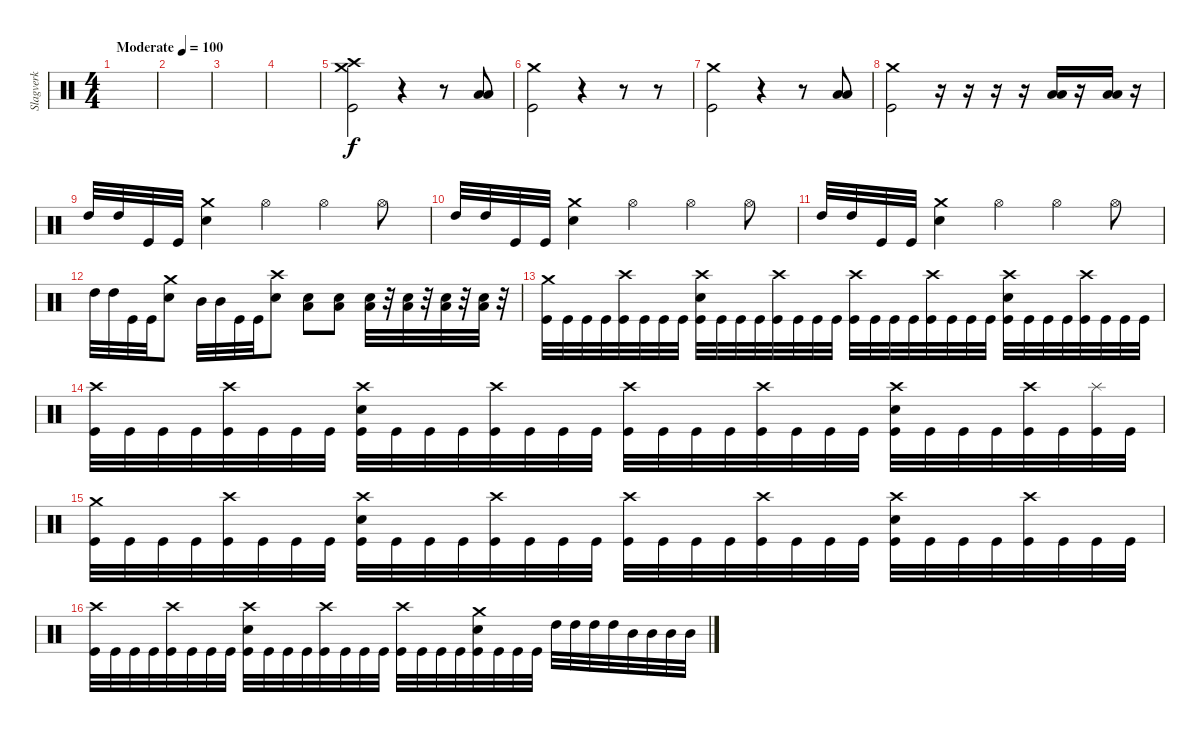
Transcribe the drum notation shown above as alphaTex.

\track ("Slagverk" "Slagverk") {solo instrument percussion}
\staff {score}
\articulation defaults
\ts (4 4)
\tempo (100 "Moderate")
\clef neutral
\ks c
|
|
|
|
("Crash medium (hit)" "Crash high (hit)" "Kick (hit)").2 r.4 r.8 ("Low Floor Tom (hit)" "Low Tom (hit)").8 |
("Crash medium (hit)" "Kick (hit)").2 r.4 r.8 r.8 |
("Crash medium (hit)" "Kick (hit)").2 r.4 r.8 ("Low Floor Tom (hit)" "Low Tom (hit)").8 |
("Crash medium (hit)" "Kick (hit)").2 r.16 r.16 r.16 r.16 ("Low Tom (hit)" "Low Tom (hit)").16 r.16 ("Low Tom (hit)" "Low Tom (hit)").16 r.16 |
"High Tom (hit)".32 "High Tom (hit)".32 "Kick (hit)".32 "Kick (hit)".32 ("Crash medium (hit)" "Snare (hit) 2").4 "Hi-Hat (open)".4 "Hi-Hat (open)".4 "Hi-Hat (open)".8 |
"High Tom (hit)".32 "High Tom (hit)".32 "Kick (hit)".32 "Kick (hit)".32 ("Crash medium (hit)" "Snare (hit) 2").4 "Hi-Hat (open)".4 "Hi-Hat (open)".4 "Hi-Hat (open)".8 |
"High Tom (hit)".32 "High Tom (hit)".32 "Kick (hit)".32 "Kick (hit)".32 ("Crash medium (hit)" "Snare (hit) 2").4 "Hi-Hat (open)".4 "Hi-Hat (open)".4 "Hi-Hat (open)".8 |
"High Tom (hit)".32 "High Tom (hit)".32 "Kick (hit)".32 "Kick (hit)".32 ("Crash medium (hit)" "Snare (hit) 2").8 "Mid Tom (hit)".32 "Mid Tom (hit)".32 "Kick (hit)".32 "Kick (hit)".32 ("Crash high (hit)" "Snare (hit) 2").8 ("Low Floor Tom (hit)" "Snare (hit) 2").8 ("Low Floor Tom (hit)" "Snare (hit) 2").8 ("Low Floor Tom (hit)" "Snare (hit) 2").32 r.32 ("Low Floor Tom (hit)" "Snare (hit) 2").32 r.32 ("Low Floor Tom (hit)" "Snare (hit) 2").32 r.32 ("Low Floor Tom (hit)" "Snare (hit) 2").32 r.32 |
("Crash medium (hit)" "Kick (hit)").32 "Kick (hit)".32 "Kick (hit)".32 "Kick (hit)".32 ("Crash high (hit)" "Kick (hit)").32 "Kick (hit)".32 "Kick (hit)".32 "Kick (hit)".32 ("Crash high (hit)" "Electric Snare (hit)" "Kick (hit)").32 "Kick (hit)".32 "Kick (hit)".32 "Kick (hit)".32 ("Crash high (hit)" "Kick (hit)").32 "Kick (hit)".32 "Kick (hit)".32 "Kick (hit)".32 ("Crash high (hit)" "Kick (hit)").32 "Kick (hit)".32 "Kick (hit)".32 "Kick (hit)".32 ("Crash high (hit)" "Kick (hit)").32 "Kick (hit)".32 "Kick (hit)".32 "Kick (hit)".32 ("Crash high (hit)" "Electric Snare (hit)" "Kick (hit)").32 "Kick (hit)".32 "Kick (hit)".32 "Kick (hit)".32 ("Crash high (hit)" "Kick (hit)").32 "Kick (hit)".32 "Kick (hit)".32 "Kick (hit)".32 |
("Crash high (hit)" "Kick (hit)").32 "Kick (hit)".32 "Kick (hit)".32 "Kick (hit)".32 ("Crash high (hit)" "Kick (hit)").32 "Kick (hit)".32 "Kick (hit)".32 "Kick (hit)".32 ("Crash high (hit)" "Electric Snare (hit)" "Kick (hit)").32 "Kick (hit)".32 "Kick (hit)".32 "Kick (hit)".32 ("Crash high (hit)" "Kick (hit)").32 "Kick (hit)".32 "Kick (hit)".32 "Kick (hit)".32 ("Crash high (hit)" "Kick (hit)").32 "Kick (hit)".32 "Kick (hit)".32 "Kick (hit)".32 ("Crash high (hit)" "Kick (hit)").32 "Kick (hit)".32 "Kick (hit)".32 "Kick (hit)".32 ("Crash high (hit)" "Electric Snare (hit)" "Kick (hit)").32 "Kick (hit)".32 "Kick (hit)".32 "Kick (hit)".32 ("Crash high (hit)" "Kick (hit)").32 "Kick (hit)".32 ("Splash (hit)" "Kick (hit)").32 "Kick (hit)".32 |
("Crash medium (hit)" "Kick (hit)").32 "Kick (hit)".32 "Kick (hit)".32 "Kick (hit)".32 ("Crash high (hit)" "Kick (hit)").32 "Kick (hit)".32 "Kick (hit)".32 "Kick (hit)".32 ("Crash high (hit)" "Electric Snare (hit)" "Kick (hit)").32 "Kick (hit)".32 "Kick (hit)".32 "Kick (hit)".32 ("Crash high (hit)" "Kick (hit)").32 "Kick (hit)".32 "Kick (hit)".32 "Kick (hit)".32 ("Crash high (hit)" "Kick (hit)").32 "Kick (hit)".32 "Kick (hit)".32 "Kick (hit)".32 ("Crash high (hit)" "Kick (hit)").32 "Kick (hit)".32 "Kick (hit)".32 "Kick (hit)".32 ("Crash high (hit)" "Electric Snare (hit)" "Kick (hit)").32 "Kick (hit)".32 "Kick (hit)".32 "Kick (hit)".32 ("Crash high (hit)" "Kick (hit)").32 "Kick (hit)".32 "Kick (hit)".32 "Kick (hit)".32 |
("Crash high (hit)" "Kick (hit)").32 "Kick (hit)".32 "Kick (hit)".32 "Kick (hit)".32 ("Crash high (hit)" "Kick (hit)").32 "Kick (hit)".32 "Kick (hit)".32 "Kick (hit)".32 ("Crash high (hit)" "Electric Snare (hit)" "Kick (hit)").32 "Kick (hit)".32 "Kick (hit)".32 "Kick (hit)".32 ("Crash high (hit)" "Kick (hit)").32 "Kick (hit)".32 "Kick (hit)".32 "Kick (hit)".32 ("Crash high (hit)" "Kick (hit)").32 "Kick (hit)".32 "Kick (hit)".32 "Kick (hit)".32 ("Crash medium (hit)" "Electric Snare (hit)" "Kick (hit)").32 "Kick (hit)".32 "Kick (hit)".32 "Kick (hit)".32 "High Tom (hit)".32 "High Tom (hit)".32 "High Tom (hit)".32 "High Tom (hit)".32 "Mid Tom (hit)".32 "Mid Tom (hit)".32 "Mid Tom (hit)".32 "Mid Tom (hit)".32
